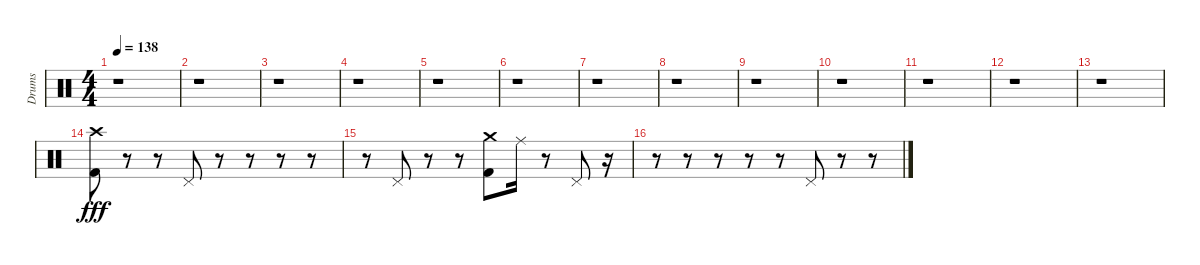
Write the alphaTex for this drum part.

\track ("Drums" "Drums") {instrument percussion}
\staff {score}
\articulation defaults
\ts (4 4)
\tempo 138
\tempo 210
\tempo 138
\clef neutral
\ks c
r.1{dy fff} |
r.1 |
r.1 |
r.1 |
r.1 |
r.1 |
r.1 |
r.1 |
r.1 |
r.1 |
r.1 |
r.1 |
r.1 |
("Crash high (hit)" "Kick (hit) 2").8 r.8 r.8 "Pedal Hi-Hat (hit)".8 r.8 r.8 r.8 r.8 |
r.8 "Pedal Hi-Hat (hit)".8 r.8 r.8 ("Crash medium (hit)" "Kick (hit) 2").8 "Ride (middle)".16 r.8 "Pedal Hi-Hat (hit)".8 r.16 |
r.8 r.8 r.8 r.8 r.8 "Pedal Hi-Hat (hit)".8 r.8 r.8
